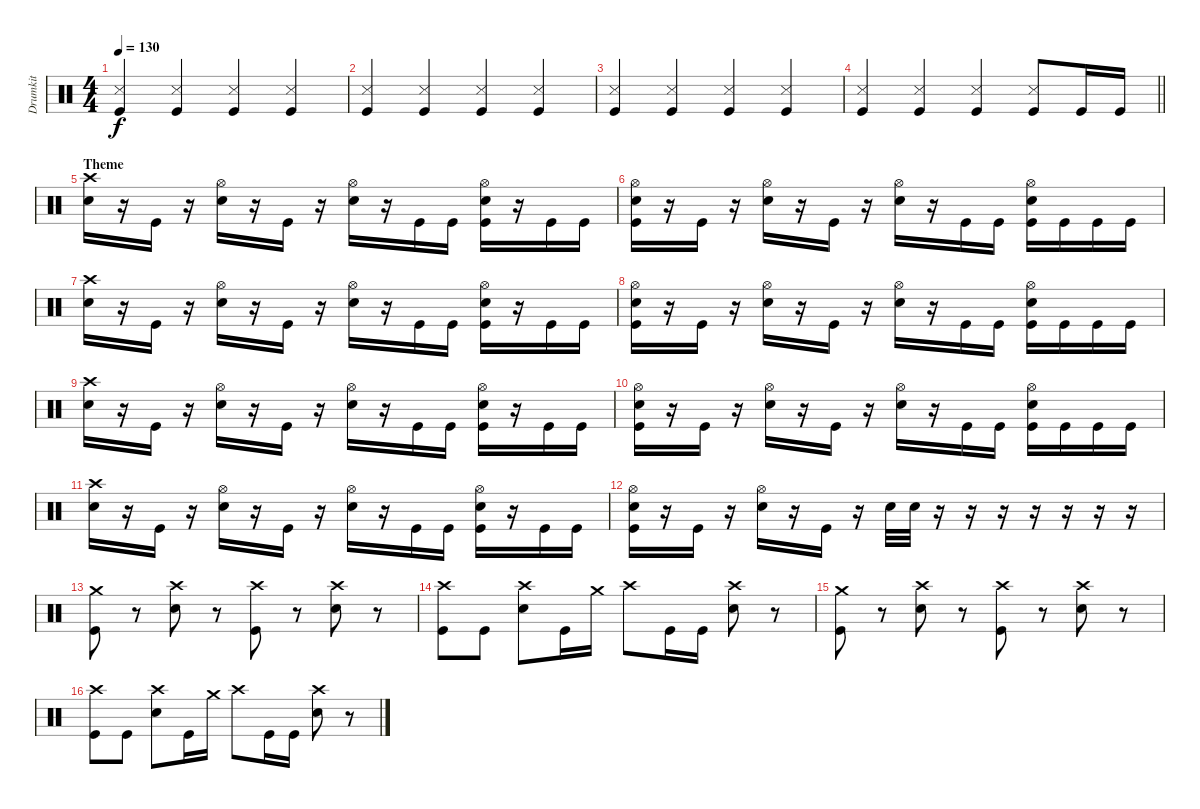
\track ("Drumkit" "Drumkit") {instrument percussion}
\staff {score}
\articulation defaults
\ts (4 4)
\tempo 130
\clef neutral
\ks c
("Snare (side stick) 3" "Kick (hit)").4{dy f} ("Snare (side stick) 3" "Kick (hit)").4 ("Snare (side stick) 3" "Kick (hit)").4 ("Snare (side stick) 3" "Kick (hit)").4 |
("Snare (side stick) 3" "Kick (hit)").4 ("Snare (side stick) 3" "Kick (hit)").4 ("Snare (side stick) 3" "Kick (hit)").4 ("Snare (side stick) 3" "Kick (hit)").4 |
("Snare (side stick) 3" "Kick (hit)").4 ("Snare (side stick) 3" "Kick (hit)").4 ("Snare (side stick) 3" "Kick (hit)").4 ("Snare (side stick) 3" "Kick (hit)").4 |
\barLineRight lightlight
("Snare (side stick) 3" "Kick (hit)").4 ("Snare (side stick) 3" "Kick (hit)").4 ("Snare (side stick) 3" "Kick (hit)").4 ("Snare (side stick) 3" "Kick (hit)").8 "Kick (hit)".16 "Kick (hit)".16 |
\section ("" "Theme")
("Crash high (hit)" "Snare (hit) 2").16 r.16 "Kick (hit)".16 r.16 ("Hi-Hat (open)" "Snare (hit) 2").16 r.16 "Kick (hit)".16 r.16 ("Hi-Hat (open)" "Snare (hit) 2").16 r.16 "Kick (hit)".16 "Kick (hit)".16 ("Hi-Hat (open)" "Snare (hit) 2" "Kick (hit)").16 r.16 "Kick (hit)".16 "Kick (hit)".16 |
("Hi-Hat (open)" "Snare (hit) 2" "Kick (hit)").16 r.16 "Kick (hit)".16 r.16 ("Hi-Hat (open)" "Snare (hit) 2").16 r.16 "Kick (hit)".16 r.16 ("Hi-Hat (open)" "Snare (hit) 2").16 r.16 "Kick (hit)".16 "Kick (hit)".16 ("Hi-Hat (open)" "Snare (hit) 2" "Kick (hit)").16 "Kick (hit)".16 "Kick (hit)".16 "Kick (hit)".16 |
("Crash high (hit)" "Snare (hit) 2").16 r.16 "Kick (hit)".16 r.16 ("Hi-Hat (open)" "Snare (hit) 2").16 r.16 "Kick (hit)".16 r.16 ("Hi-Hat (open)" "Snare (hit) 2").16 r.16 "Kick (hit)".16 "Kick (hit)".16 ("Hi-Hat (open)" "Snare (hit) 2" "Kick (hit)").16 r.16 "Kick (hit)".16 "Kick (hit)".16 |
("Hi-Hat (open)" "Snare (hit) 2" "Kick (hit)").16 r.16 "Kick (hit)".16 r.16 ("Hi-Hat (open)" "Snare (hit) 2").16 r.16 "Kick (hit)".16 r.16 ("Hi-Hat (open)" "Snare (hit) 2").16 r.16 "Kick (hit)".16 "Kick (hit)".16 ("Hi-Hat (open)" "Snare (hit) 2" "Kick (hit)").16 "Kick (hit)".16 "Kick (hit)".16 "Kick (hit)".16 |
("Crash high (hit)" "Snare (hit) 2").16 r.16 "Kick (hit)".16 r.16 ("Hi-Hat (open)" "Snare (hit) 2").16 r.16 "Kick (hit)".16 r.16 ("Hi-Hat (open)" "Snare (hit) 2").16 r.16 "Kick (hit)".16 "Kick (hit)".16 ("Hi-Hat (open)" "Snare (hit) 2" "Kick (hit)").16 r.16 "Kick (hit)".16 "Kick (hit)".16 |
("Hi-Hat (open)" "Snare (hit) 2" "Kick (hit)").16 r.16 "Kick (hit)".16 r.16 ("Hi-Hat (open)" "Snare (hit) 2").16 r.16 "Kick (hit)".16 r.16 ("Hi-Hat (open)" "Snare (hit) 2").16 r.16 "Kick (hit)".16 "Kick (hit)".16 ("Hi-Hat (open)" "Snare (hit) 2" "Kick (hit)").16 "Kick (hit)".16 "Kick (hit)".16 "Kick (hit)".16 |
("Crash high (hit)" "Snare (hit) 2").16 r.16 "Kick (hit)".16 r.16 ("Hi-Hat (open)" "Snare (hit) 2").16 r.16 "Kick (hit)".16 r.16 ("Hi-Hat (open)" "Snare (hit) 2").16 r.16 "Kick (hit)".16 "Kick (hit)".16 ("Hi-Hat (open)" "Snare (hit) 2" "Kick (hit)").16 r.16 "Kick (hit)".16 "Kick (hit)".16 |
("Hi-Hat (open)" "Snare (hit) 2" "Kick (hit)").16 r.16 "Kick (hit)".16 r.16 ("Hi-Hat (open)" "Snare (hit) 2").16 r.16 "Kick (hit)".16 r.16 "Snare (hit) 2".32 "Snare (hit) 2".32 r.16 r.16 r.16 r.16 r.16 r.16 r.16 |
("Crash medium (hit)" "Kick (hit)").8 r.8 ("Crash high (hit)" "Snare (hit) 2").8 r.8 ("Crash high (hit)" "Kick (hit)").8 r.8 ("Crash high (hit)" "Snare (hit) 2").8 r.8 |
("Crash high (hit)" "Kick (hit)").8 "Kick (hit)".8 ("Crash high (hit)" "Snare (hit) 2").8 "Kick (hit)".16 "Crash medium (hit)".16 "Crash high (hit)".8 "Kick (hit)".16 "Kick (hit)".16 ("Crash high (hit)" "Snare (hit) 2").8 r.8 |
("Crash medium (hit)" "Kick (hit)").8 r.8 ("Crash high (hit)" "Snare (hit) 2").8 r.8 ("Crash high (hit)" "Kick (hit)").8 r.8 ("Crash high (hit)" "Snare (hit) 2").8 r.8 |
("Crash high (hit)" "Kick (hit)").8 "Kick (hit)".8 ("Crash high (hit)" "Snare (hit) 2").8 "Kick (hit)".16 "Crash medium (hit)".16 "Crash high (hit)".8 "Kick (hit)".16 "Kick (hit)".16 ("Crash high (hit)" "Snare (hit) 2").8 r.8
